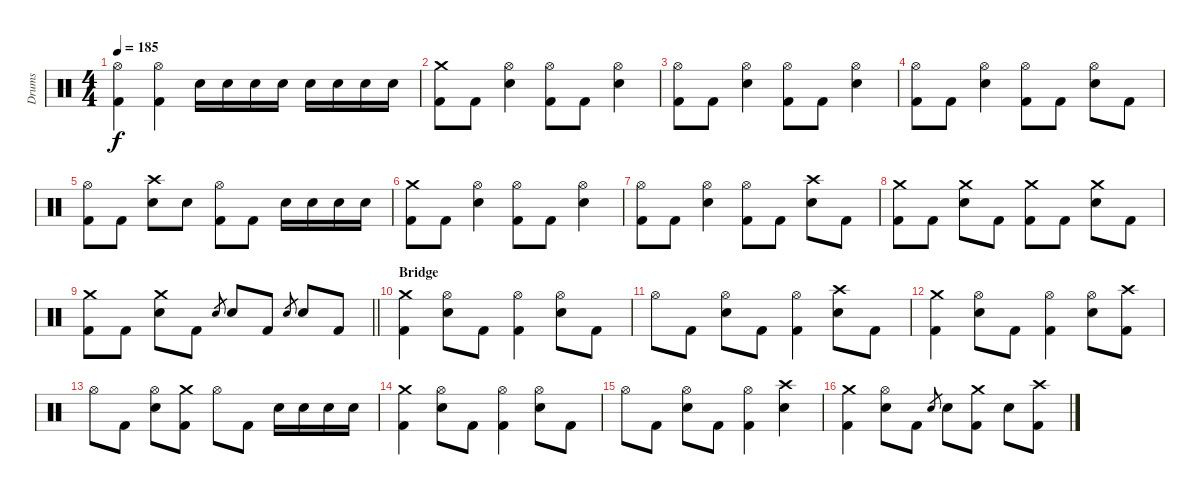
\track ("Drums" "Drums") {instrument percussion}
\staff {score}
\articulation defaults
\ts (4 4)
\tempo 185
\clef neutral
\ks c
("Hi-Hat (open)" "Kick (hit) 2").4{dy f} ("Hi-Hat (open)" "Kick (hit) 2").4 "Electric Snare (hit)".16 "Electric Snare (hit)".16 "Electric Snare (hit)".16 "Electric Snare (hit)".16 "Electric Snare (hit)".16 "Electric Snare (hit)".16 "Electric Snare (hit)".16 "Electric Snare (hit)".16 |
("Crash medium (hit)" "Kick (hit) 2").8 "Kick (hit) 2".8 ("Hi-Hat (open)" "Electric Snare (hit)").4 ("Hi-Hat (open)" "Kick (hit) 2").8 "Kick (hit) 2".8 ("Hi-Hat (open)" "Electric Snare (hit)").4 |
("Hi-Hat (open)" "Kick (hit) 2").8 "Kick (hit) 2".8 ("Hi-Hat (open)" "Electric Snare (hit)").4 ("Hi-Hat (open)" "Kick (hit) 2").8 "Kick (hit) 2".8 ("Hi-Hat (open)" "Electric Snare (hit)").4 |
("Hi-Hat (open)" "Kick (hit) 2").8 "Kick (hit) 2".8 ("Hi-Hat (open)" "Electric Snare (hit)").4 ("Hi-Hat (open)" "Kick (hit) 2").8 "Kick (hit) 2".8 ("Hi-Hat (open)" "Electric Snare (hit)").8 "Kick (hit) 2".8 |
("Hi-Hat (open)" "Kick (hit) 2").8 "Kick (hit) 2".8 ("Crash high (hit)" "Electric Snare (hit)").8 "Electric Snare (hit)".8 ("Hi-Hat (open)" "Kick (hit) 2").8 "Kick (hit) 2".8 "Electric Snare (hit)".16 "Electric Snare (hit)".16 "Electric Snare (hit)".16 "Electric Snare (hit)".16 |
("Crash medium (hit)" "Kick (hit) 2").8 "Kick (hit) 2".8 ("Hi-Hat (open)" "Electric Snare (hit)").4 ("Hi-Hat (open)" "Kick (hit) 2").8 "Kick (hit) 2".8 ("Hi-Hat (open)" "Electric Snare (hit)").4 |
("Hi-Hat (open)" "Kick (hit) 2").8 "Kick (hit) 2".8 ("Hi-Hat (open)" "Electric Snare (hit)").4 ("Hi-Hat (open)" "Kick (hit) 2").8 "Kick (hit) 2".8 ("Crash high (hit)" "Electric Snare (hit)").8 "Kick (hit) 2".8 |
("Crash medium (hit)" "Kick (hit) 2").8 "Kick (hit) 2".8 ("Crash medium (hit)" "Electric Snare (hit)").8 "Kick (hit) 2".8 ("Crash medium (hit)" "Kick (hit) 2").8 "Kick (hit) 2".8 ("Crash medium (hit)" "Electric Snare (hit)").8 "Kick (hit) 2".8 |
\barLineRight lightlight
("Crash medium (hit)" "Kick (hit) 2").8 "Kick (hit) 2".8 ("Crash medium (hit)" "Electric Snare (hit)").8 "Kick (hit) 2".8 "Electric Snare (hit)".8{gr} "Electric Snare (hit)".8 "Kick (hit) 2".8 "Electric Snare (hit)".8{gr} "Electric Snare (hit)".8 "Kick (hit) 2".8 |
\section ("" "Bridge")
("Crash medium (hit)" "Kick (hit) 2").4 ("Hi-Hat (open)" "Electric Snare (hit)").8 "Kick (hit) 2".8 ("Hi-Hat (open)" "Kick (hit) 2").4 ("Hi-Hat (open)" "Electric Snare (hit)").8 "Kick (hit) 2".8 |
"Hi-Hat (open)".8 "Kick (hit) 2".8 ("Hi-Hat (open)" "Electric Snare (hit)").8 "Kick (hit) 2".8 ("Hi-Hat (open)" "Kick (hit) 2").4 ("Crash high (hit)" "Electric Snare (hit)").8 "Kick (hit) 2".8 |
("Crash medium (hit)" "Kick (hit) 2").4 ("Hi-Hat (open)" "Electric Snare (hit)").8 "Kick (hit) 2".8 ("Hi-Hat (open)" "Kick (hit) 2").4 ("Hi-Hat (open)" "Electric Snare (hit)").8 ("Crash high (hit)" "Kick (hit) 2").8 |
"Hi-Hat (open)".8 "Kick (hit) 2".8 ("Hi-Hat (open)" "Electric Snare (hit)").8 ("Crash medium (hit)" "Kick (hit) 2").8 "Hi-Hat (open)".8 "Kick (hit) 2".8 "Electric Snare (hit)".16 "Electric Snare (hit)".16 "Electric Snare (hit)".16 "Electric Snare (hit)".16 |
("Crash medium (hit)" "Kick (hit) 2").4 ("Hi-Hat (open)" "Electric Snare (hit)").8 "Kick (hit) 2".8 ("Hi-Hat (open)" "Kick (hit) 2").4 ("Hi-Hat (open)" "Electric Snare (hit)").8 "Kick (hit) 2".8 |
"Hi-Hat (open)".8 "Kick (hit) 2".8 ("Hi-Hat (open)" "Electric Snare (hit)").8 "Kick (hit) 2".8 ("Hi-Hat (open)" "Kick (hit) 2").4 ("Crash high (hit)" "Electric Snare (hit)").4 |
("Crash medium (hit)" "Kick (hit) 2").4 ("Hi-Hat (open)" "Electric Snare (hit)").8 "Kick (hit) 2".8 "Electric Snare (hit)".8{gr} "Electric Snare (hit)".8 ("Crash medium (hit)" "Kick (hit) 2").8 "Electric Snare (hit)".8 ("Crash high (hit)" "Kick (hit) 2").8
